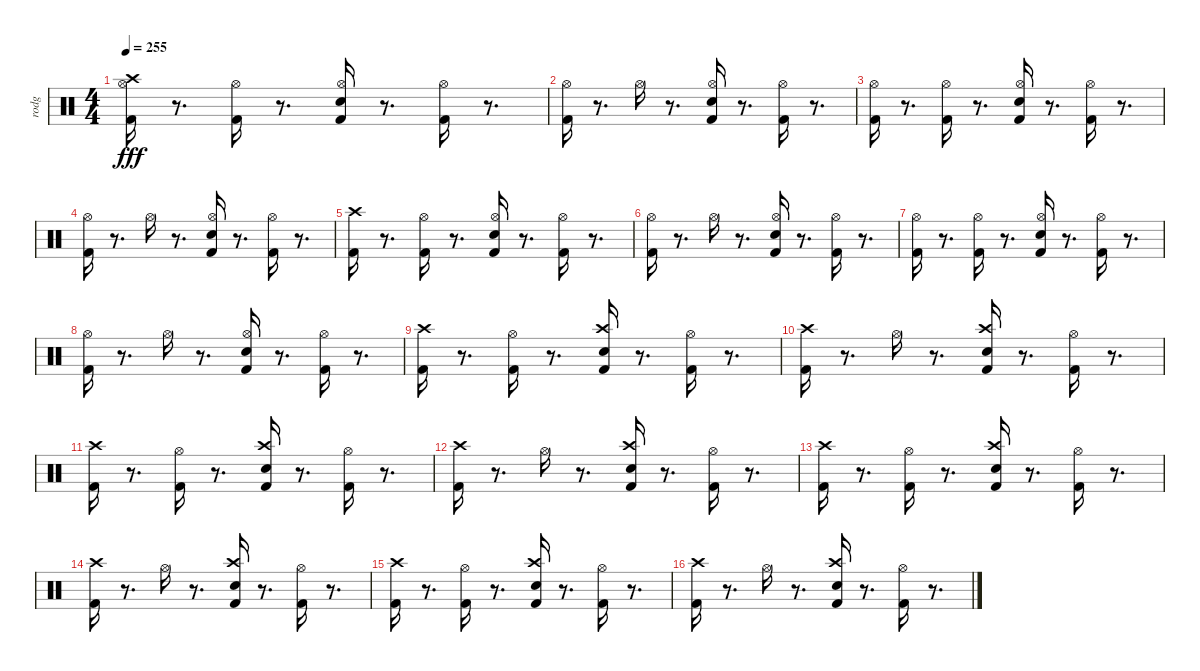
\track ("rodg" "rodg") {instrument percussion}
\staff {score}
\articulation defaults
\ts (4 4)
\tempo 255
\clef neutral
\ks c
("Kick (hit) 2" "Hi-Hat (open)" "Crash high (hit)").16{dy fff} r.8{d} ("Kick (hit) 2" "Hi-Hat (open)").16 r.8{d} ("Kick (hit) 2" "Electric Snare (hit)" "Hi-Hat (open)").16 r.8{d} ("Kick (hit) 2" "Hi-Hat (open)").16 r.8{d} |
("Kick (hit) 2" "Hi-Hat (open)").16 r.8{d} "Hi-Hat (open)".16 r.8{d} ("Kick (hit) 2" "Electric Snare (hit)" "Hi-Hat (open)").16 r.8{d} ("Kick (hit) 2" "Hi-Hat (open)").16 r.8{d} |
("Hi-Hat (open)" "Kick (hit) 2").16 r.8{d} ("Kick (hit) 2" "Hi-Hat (open)").16 r.8{d} ("Kick (hit) 2" "Electric Snare (hit)" "Hi-Hat (open)").16 r.8{d} ("Kick (hit) 2" "Hi-Hat (open)").16 r.8{d} |
("Kick (hit) 2" "Hi-Hat (open)").16 r.8{d} "Hi-Hat (open)".16 r.8{d} ("Kick (hit) 2" "Electric Snare (hit)" "Hi-Hat (open)").16 r.8{d} ("Kick (hit) 2" "Hi-Hat (open)").16 r.8{d} |
("Crash high (hit)" "Kick (hit) 2").16 r.8{d} ("Kick (hit) 2" "Hi-Hat (open)").16 r.8{d} ("Kick (hit) 2" "Electric Snare (hit)" "Hi-Hat (open)").16 r.8{d} ("Kick (hit) 2" "Hi-Hat (open)").16 r.8{d} |
("Kick (hit) 2" "Hi-Hat (open)").16 r.8{d} "Hi-Hat (open)".16 r.8{d} ("Kick (hit) 2" "Electric Snare (hit)" "Hi-Hat (open)").16 r.8{d} ("Kick (hit) 2" "Hi-Hat (open)").16 r.8{d} |
("Hi-Hat (open)" "Kick (hit) 2").16 r.8{d} ("Kick (hit) 2" "Hi-Hat (open)").16 r.8{d} ("Kick (hit) 2" "Electric Snare (hit)" "Hi-Hat (open)").16 r.8{d} ("Kick (hit) 2" "Hi-Hat (open)").16 r.8{d} |
("Kick (hit) 2" "Hi-Hat (open)").16 r.8{d} "Hi-Hat (open)".16 r.8{d} ("Kick (hit) 2" "Electric Snare (hit)" "Hi-Hat (open)").16 r.8{d} ("Kick (hit) 2" "Hi-Hat (open)").16 r.8{d} |
("Crash high (hit)" "Kick (hit) 2").16 r.8{d} ("Kick (hit) 2" "Hi-Hat (open)").16 r.8{d} ("Kick (hit) 2" "Electric Snare (hit)" "Crash high (hit)").16 r.8{d} ("Kick (hit) 2" "Hi-Hat (open)").16 r.8{d} |
("Kick (hit) 2" "Crash high (hit)").16 r.8{d} "Hi-Hat (open)".16 r.8{d} ("Kick (hit) 2" "Electric Snare (hit)" "Crash high (hit)").16 r.8{d} ("Kick (hit) 2" "Hi-Hat (open)").16 r.8{d} |
("Crash high (hit)" "Kick (hit) 2").16 r.8{d} ("Kick (hit) 2" "Hi-Hat (open)").16 r.8{d} ("Kick (hit) 2" "Electric Snare (hit)" "Crash high (hit)").16 r.8{d} ("Kick (hit) 2" "Hi-Hat (open)").16 r.8{d} |
("Kick (hit) 2" "Crash high (hit)").16 r.8{d} "Hi-Hat (open)".16 r.8{d} ("Kick (hit) 2" "Electric Snare (hit)" "Crash high (hit)").16 r.8{d} ("Kick (hit) 2" "Hi-Hat (open)").16 r.8{d} |
("Crash high (hit)" "Kick (hit) 2").16 r.8{d} ("Kick (hit) 2" "Hi-Hat (open)").16 r.8{d} ("Kick (hit) 2" "Electric Snare (hit)" "Crash high (hit)").16 r.8{d} ("Kick (hit) 2" "Hi-Hat (open)").16 r.8{d} |
("Kick (hit) 2" "Crash high (hit)").16 r.8{d} "Hi-Hat (open)".16 r.8{d} ("Kick (hit) 2" "Electric Snare (hit)" "Crash high (hit)").16 r.8{d} ("Kick (hit) 2" "Hi-Hat (open)").16 r.8{d} |
("Crash high (hit)" "Kick (hit) 2").16 r.8{d} ("Kick (hit) 2" "Hi-Hat (open)").16 r.8{d} ("Kick (hit) 2" "Electric Snare (hit)" "Crash high (hit)").16 r.8{d} ("Kick (hit) 2" "Hi-Hat (open)").16 r.8{d} |
("Kick (hit) 2" "Crash high (hit)").16 r.8{d} "Hi-Hat (open)".16 r.8{d} ("Kick (hit) 2" "Electric Snare (hit)" "Crash high (hit)").16 r.8{d} ("Kick (hit) 2" "Hi-Hat (open)").16 r.8{d}
